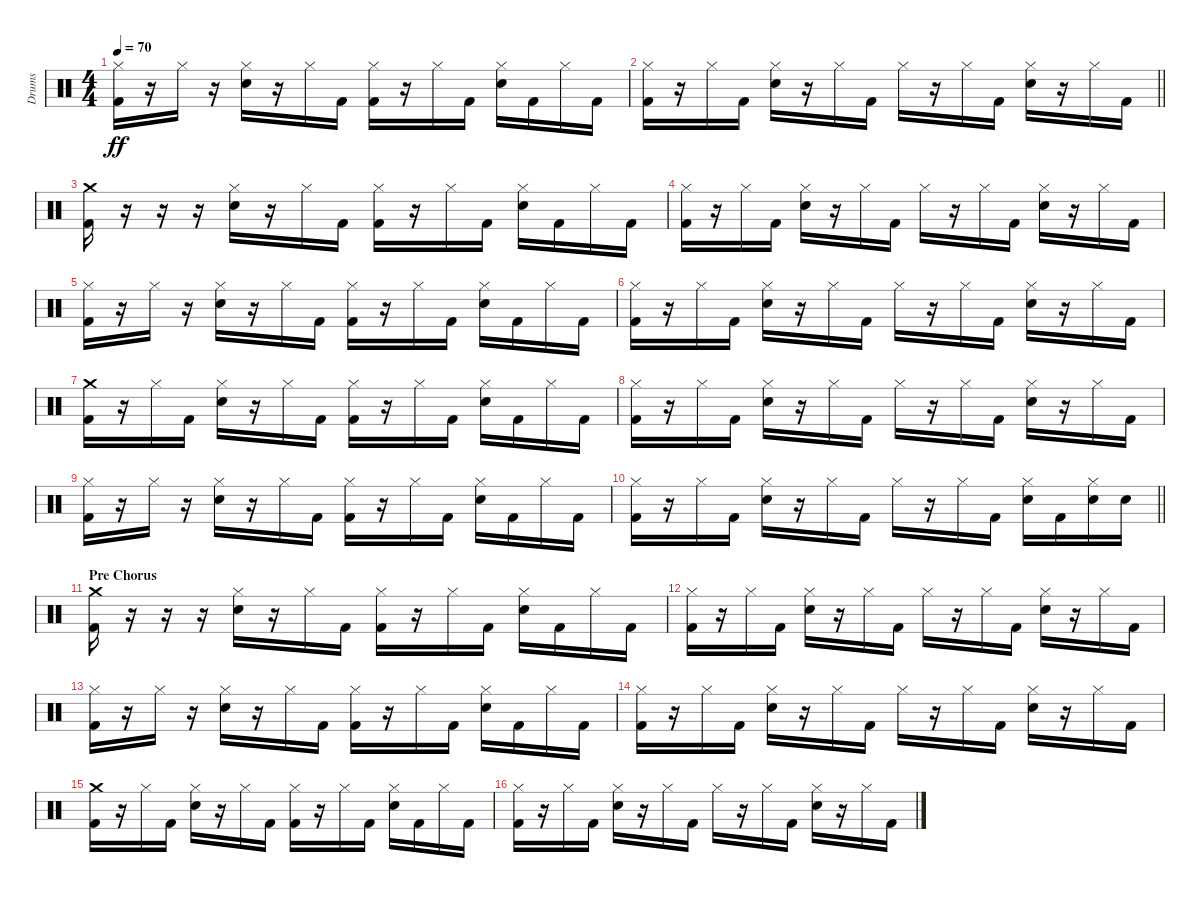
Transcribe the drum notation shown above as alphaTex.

\track ("Drums" "Drums") {instrument percussion}
\staff {score}
\articulation defaults
\ts (4 4)
\tempo 70
\clef neutral
\ks c
("Hi-Hat (closed)" "Kick (hit) 2").16{dy ff} r.16 "Hi-Hat (closed)".16 r.16 ("Hi-Hat (closed)" "Snare (hit) 2").16 r.16 "Hi-Hat (closed)".16 "Kick (hit) 2".16 ("Hi-Hat (closed)" "Kick (hit) 2").16 r.16 "Hi-Hat (closed)".16 "Kick (hit) 2".16 ("Hi-Hat (closed)" "Snare (hit) 2").16 "Kick (hit) 2".16 "Hi-Hat (closed)".16 "Kick (hit) 2".16 |
\barLineRight lightlight
("Hi-Hat (closed)" "Kick (hit) 2").16 r.16 "Hi-Hat (closed)".16 "Kick (hit) 2".16 ("Hi-Hat (closed)" "Snare (hit) 2").16 r.16 "Hi-Hat (closed)".16 "Kick (hit) 2".16 "Hi-Hat (closed)".16 r.16 "Hi-Hat (closed)".16 "Kick (hit) 2".16 ("Hi-Hat (closed)" "Snare (hit) 2").16 r.16 "Hi-Hat (closed)".16 "Kick (hit) 2".16 |
("Crash medium (hit)" "Kick (hit) 2").16 r.16 r.16 r.16 ("Hi-Hat (closed)" "Snare (hit) 2").16 r.16 "Hi-Hat (closed)".16 "Kick (hit) 2".16 ("Hi-Hat (closed)" "Kick (hit) 2").16 r.16 "Hi-Hat (closed)".16 "Kick (hit) 2".16 ("Hi-Hat (closed)" "Snare (hit) 2").16 "Kick (hit) 2".16 "Hi-Hat (closed)".16 "Kick (hit) 2".16 |
("Hi-Hat (closed)" "Kick (hit) 2").16 r.16 "Hi-Hat (closed)".16 "Kick (hit) 2".16 ("Hi-Hat (closed)" "Snare (hit) 2").16 r.16 "Hi-Hat (closed)".16 "Kick (hit) 2".16 "Hi-Hat (closed)".16 r.16 "Hi-Hat (closed)".16 "Kick (hit) 2".16 ("Hi-Hat (closed)" "Snare (hit) 2").16 r.16 "Hi-Hat (closed)".16 "Kick (hit) 2".16 |
("Hi-Hat (closed)" "Kick (hit) 2").16 r.16 "Hi-Hat (closed)".16 r.16 ("Hi-Hat (closed)" "Snare (hit) 2").16 r.16 "Hi-Hat (closed)".16 "Kick (hit) 2".16 ("Hi-Hat (closed)" "Kick (hit) 2").16 r.16 "Hi-Hat (closed)".16 "Kick (hit) 2".16 ("Hi-Hat (closed)" "Snare (hit) 2").16 "Kick (hit) 2".16 "Hi-Hat (closed)".16 "Kick (hit) 2".16 |
("Hi-Hat (closed)" "Kick (hit) 2").16 r.16 "Hi-Hat (closed)".16 "Kick (hit) 2".16 ("Hi-Hat (closed)" "Snare (hit) 2").16 r.16 "Hi-Hat (closed)".16 "Kick (hit) 2".16 "Hi-Hat (closed)".16 r.16 "Hi-Hat (closed)".16 "Kick (hit) 2".16 ("Hi-Hat (closed)" "Snare (hit) 2").16 r.16 "Hi-Hat (closed)".16 "Kick (hit) 2".16 |
("Crash medium (hit)" "Kick (hit) 2").16 r.16 "Hi-Hat (closed)".16 "Kick (hit) 2".16 ("Hi-Hat (closed)" "Snare (hit) 2").16 r.16 "Hi-Hat (closed)".16 "Kick (hit) 2".16 ("Hi-Hat (closed)" "Kick (hit) 2").16 r.16 "Hi-Hat (closed)".16 "Kick (hit) 2".16 ("Hi-Hat (closed)" "Snare (hit) 2").16 "Kick (hit) 2".16 "Hi-Hat (closed)".16 "Kick (hit) 2".16 |
("Hi-Hat (closed)" "Kick (hit) 2").16 r.16 "Hi-Hat (closed)".16 "Kick (hit) 2".16 ("Hi-Hat (closed)" "Snare (hit) 2").16 r.16 "Hi-Hat (closed)".16 "Kick (hit) 2".16 "Hi-Hat (closed)".16 r.16 "Hi-Hat (closed)".16 "Kick (hit) 2".16 ("Hi-Hat (closed)" "Snare (hit) 2").16 r.16 "Hi-Hat (closed)".16 "Kick (hit) 2".16 |
("Hi-Hat (closed)" "Kick (hit) 2").16 r.16 "Hi-Hat (closed)".16 r.16 ("Hi-Hat (closed)" "Snare (hit) 2").16 r.16 "Hi-Hat (closed)".16 "Kick (hit) 2".16 ("Hi-Hat (closed)" "Kick (hit) 2").16 r.16 "Hi-Hat (closed)".16 "Kick (hit) 2".16 ("Hi-Hat (closed)" "Snare (hit) 2").16 "Kick (hit) 2".16 "Hi-Hat (closed)".16 "Kick (hit) 2".16 |
\barLineRight lightlight
("Hi-Hat (closed)" "Kick (hit) 2").16 r.16 "Hi-Hat (closed)".16 "Kick (hit) 2".16 ("Hi-Hat (closed)" "Snare (hit) 2").16 r.16 "Hi-Hat (closed)".16 "Kick (hit) 2".16 "Hi-Hat (closed)".16 r.16 "Hi-Hat (closed)".16 "Kick (hit) 2".16 ("Hi-Hat (closed)" "Snare (hit) 2").16 "Kick (hit) 2".16 ("Hi-Hat (closed)" "Snare (hit) 2").16 "Snare (hit) 2".16 |
\section ("" "Pre Chorus")
("Crash medium (hit)" "Kick (hit) 2").16 r.16 r.16 r.16 ("Hi-Hat (closed)" "Snare (hit) 2").16 r.16 "Hi-Hat (closed)".16 "Kick (hit) 2".16 ("Hi-Hat (closed)" "Kick (hit) 2").16 r.16 "Hi-Hat (closed)".16 "Kick (hit) 2".16 ("Hi-Hat (closed)" "Snare (hit) 2").16 "Kick (hit) 2".16 "Hi-Hat (closed)".16 "Kick (hit) 2".16 |
("Hi-Hat (closed)" "Kick (hit) 2").16 r.16 "Hi-Hat (closed)".16 "Kick (hit) 2".16 ("Hi-Hat (closed)" "Snare (hit) 2").16 r.16 "Hi-Hat (closed)".16 "Kick (hit) 2".16 "Hi-Hat (closed)".16 r.16 "Hi-Hat (closed)".16 "Kick (hit) 2".16 ("Hi-Hat (closed)" "Snare (hit) 2").16 r.16 "Hi-Hat (closed)".16 "Kick (hit) 2".16 |
("Hi-Hat (closed)" "Kick (hit) 2").16 r.16 "Hi-Hat (closed)".16 r.16 ("Hi-Hat (closed)" "Snare (hit) 2").16 r.16 "Hi-Hat (closed)".16 "Kick (hit) 2".16 ("Hi-Hat (closed)" "Kick (hit) 2").16 r.16 "Hi-Hat (closed)".16 "Kick (hit) 2".16 ("Hi-Hat (closed)" "Snare (hit) 2").16 "Kick (hit) 2".16 "Hi-Hat (closed)".16 "Kick (hit) 2".16 |
("Hi-Hat (closed)" "Kick (hit) 2").16 r.16 "Hi-Hat (closed)".16 "Kick (hit) 2".16 ("Hi-Hat (closed)" "Snare (hit) 2").16 r.16 "Hi-Hat (closed)".16 "Kick (hit) 2".16 "Hi-Hat (closed)".16 r.16 "Hi-Hat (closed)".16 "Kick (hit) 2".16 ("Hi-Hat (closed)" "Snare (hit) 2").16 r.16 "Hi-Hat (closed)".16 "Kick (hit) 2".16 |
("Crash medium (hit)" "Kick (hit) 2").16 r.16 "Hi-Hat (closed)".16 "Kick (hit) 2".16 ("Hi-Hat (closed)" "Snare (hit) 2").16 r.16 "Hi-Hat (closed)".16 "Kick (hit) 2".16 ("Hi-Hat (closed)" "Kick (hit) 2").16 r.16 "Hi-Hat (closed)".16 "Kick (hit) 2".16 ("Hi-Hat (closed)" "Snare (hit) 2").16 "Kick (hit) 2".16 "Hi-Hat (closed)".16 "Kick (hit) 2".16 |
("Hi-Hat (closed)" "Kick (hit) 2").16 r.16 "Hi-Hat (closed)".16 "Kick (hit) 2".16 ("Hi-Hat (closed)" "Snare (hit) 2").16 r.16 "Hi-Hat (closed)".16 "Kick (hit) 2".16 "Hi-Hat (closed)".16 r.16 "Hi-Hat (closed)".16 "Kick (hit) 2".16 ("Hi-Hat (closed)" "Snare (hit) 2").16 r.16 "Hi-Hat (closed)".16 "Kick (hit) 2".16
